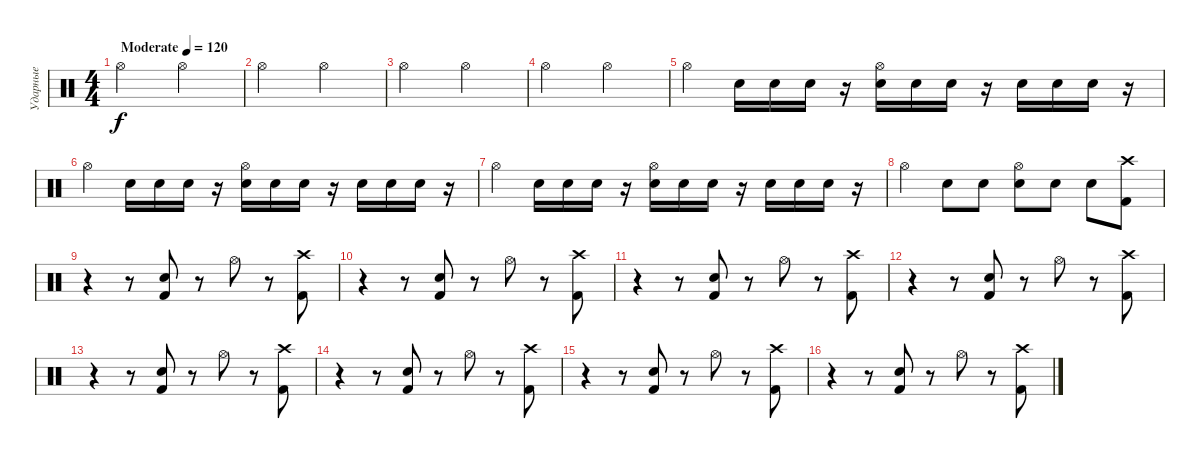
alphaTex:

\track ("Ударные" "Ударные") {instrument percussion}
\staff {score}
\articulation defaults
\ts (4 4)
\tempo (120 "Moderate")
\clef neutral
\ks c "Hi-Hat (open)".2{dy f} "Hi-Hat (open)".2
|
"Hi-Hat (open)".2 "Hi-Hat (open)".2 |
"Hi-Hat (open)".2 "Hi-Hat (open)".2 |
"Hi-Hat (open)".2 "Hi-Hat (open)".2 |
"Hi-Hat (open)".4 "Electric Snare (hit)".16 "Electric Snare (hit)".16 "Electric Snare (hit)".16 r.16 ("Electric Snare (hit)" "Hi-Hat (open)").16 "Electric Snare (hit)".16 "Electric Snare (hit)".16 r.16 "Electric Snare (hit)".16 "Electric Snare (hit)".16 "Electric Snare (hit)".16 r.16 |
"Hi-Hat (open)".4 "Electric Snare (hit)".16 "Electric Snare (hit)".16 "Electric Snare (hit)".16 r.16 ("Electric Snare (hit)" "Hi-Hat (open)").16 "Electric Snare (hit)".16 "Electric Snare (hit)".16 r.16 "Electric Snare (hit)".16 "Electric Snare (hit)".16 "Electric Snare (hit)".16 r.16 |
"Hi-Hat (open)".4 "Electric Snare (hit)".16 "Electric Snare (hit)".16 "Electric Snare (hit)".16 r.16 ("Electric Snare (hit)" "Hi-Hat (open)").16 "Electric Snare (hit)".16 "Electric Snare (hit)".16 r.16 "Electric Snare (hit)".16 "Electric Snare (hit)".16 "Electric Snare (hit)".16 r.16 |
"Hi-Hat (open)".4 "Electric Snare (hit)".8 "Electric Snare (hit)".8 ("Electric Snare (hit)" "Hi-Hat (open)").8 "Electric Snare (hit)".8 "Electric Snare (hit)".8 ("Crash high (hit)" "Kick (hit) 2").8 |
r.4 r.8 ("Electric Snare (hit)" "Kick (hit) 2").8 r.8 "Hi-Hat (open)".8 r.8 ("Crash high (hit)" "Kick (hit) 2").8 |
r.4 r.8 ("Electric Snare (hit)" "Kick (hit) 2").8 r.8 "Hi-Hat (open)".8 r.8 ("Crash high (hit)" "Kick (hit) 2").8 |
r.4 r.8 ("Electric Snare (hit)" "Kick (hit) 2").8 r.8 "Hi-Hat (open)".8 r.8 ("Crash high (hit)" "Kick (hit) 2").8 |
r.4 r.8 ("Electric Snare (hit)" "Kick (hit) 2").8 r.8 "Hi-Hat (open)".8 r.8 ("Crash high (hit)" "Kick (hit) 2").8 |
r.4 r.8 ("Electric Snare (hit)" "Kick (hit) 2").8 r.8 "Hi-Hat (open)".8 r.8 ("Crash high (hit)" "Kick (hit) 2").8 |
r.4 r.8 ("Electric Snare (hit)" "Kick (hit) 2").8 r.8 "Hi-Hat (open)".8 r.8 ("Crash high (hit)" "Kick (hit) 2").8 |
r.4 r.8 ("Electric Snare (hit)" "Kick (hit) 2").8 r.8 "Hi-Hat (open)".8 r.8 ("Crash high (hit)" "Kick (hit) 2").8 |
r.4 r.8 ("Electric Snare (hit)" "Kick (hit) 2").8 r.8 "Hi-Hat (open)".8 r.8 ("Crash high (hit)" "Kick (hit) 2").8
